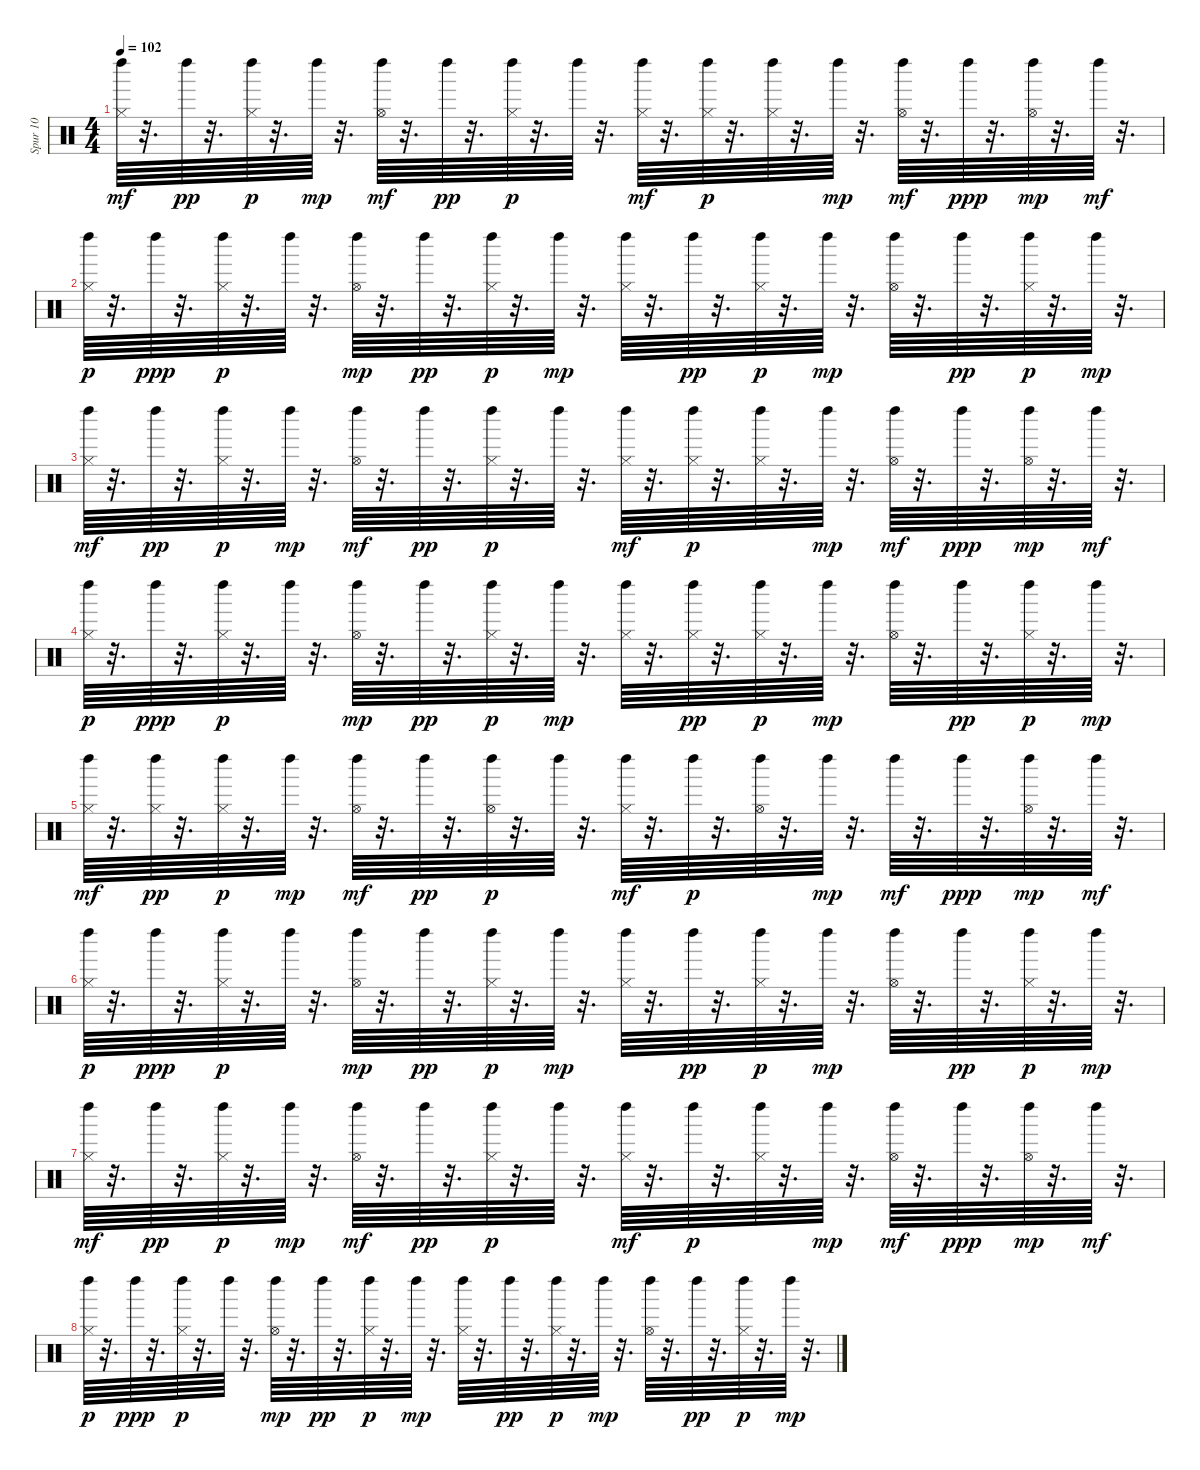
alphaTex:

\track ("Spur 10" "Spur 10") {instrument percussion}
\staff {score}
\articulation defaults
\ts (4 4)
\tempo 102
\clef neutral
\ks c
("Hi-Hat (closed)" "Left Maraca (hit)").64{dy mf} r.32{d} "Left Maraca (hit)".64{dy pp} r.32{d} ("Hi-Hat (closed)" "Left Maraca (hit)").64{dy p} r.32{d} "Left Maraca (hit)".64{dy mp} r.32{d} ("Hi-Hat (open)" "Left Maraca (hit)").64{dy mf} r.32{d} "Left Maraca (hit)".64{dy pp} r.32{d} ("Hi-Hat (closed)" "Left Maraca (hit)").64{dy p} r.32{d} "Left Maraca (hit)".64 r.32{d} ("Hi-Hat (closed)" "Left Maraca (hit)").64{dy mf} r.32{d} ("Hi-Hat (closed)" "Left Maraca (hit)").64{dy p} r.32{d} ("Hi-Hat (closed)" "Left Maraca (hit)").64 r.32{d} "Left Maraca (hit)".64{dy mp} r.32{d} ("Hi-Hat (open)" "Left Maraca (hit)").64{dy mf} r.32{d} "Left Maraca (hit)".64{dy ppp} r.32{d} ("Hi-Hat (open)" "Left Maraca (hit)").64{dy mp} r.32{d} "Left Maraca (hit)".64{dy mf} r.32{d} |
("Hi-Hat (closed)" "Left Maraca (hit)").64{dy p} r.32{d} "Left Maraca (hit)".64{dy ppp} r.32{d} ("Hi-Hat (closed)" "Left Maraca (hit)").64{dy p} r.32{d} "Left Maraca (hit)".64 r.32{d} ("Hi-Hat (open)" "Left Maraca (hit)").64{dy mp} r.32{d} "Left Maraca (hit)".64{dy pp} r.32{d} ("Hi-Hat (closed)" "Left Maraca (hit)").64{dy p} r.32{d} "Left Maraca (hit)".64{dy mp} r.32{d} ("Hi-Hat (closed)" "Left Maraca (hit)").64 r.32{d} "Left Maraca (hit)".64{dy pp} r.32{d} ("Hi-Hat (closed)" "Left Maraca (hit)").64{dy p} r.32{d} "Left Maraca (hit)".64{dy mp} r.32{d} ("Hi-Hat (open)" "Left Maraca (hit)").64 r.32{d} "Left Maraca (hit)".64{dy pp} r.32{d} ("Hi-Hat (closed)" "Left Maraca (hit)").64{dy p} r.32{d} "Left Maraca (hit)".64{dy mp} r.32{d} |
("Hi-Hat (closed)" "Left Maraca (hit)").64{dy mf} r.32{d} "Left Maraca (hit)".64{dy pp} r.32{d} ("Hi-Hat (closed)" "Left Maraca (hit)").64{dy p} r.32{d} "Left Maraca (hit)".64{dy mp} r.32{d} ("Hi-Hat (open)" "Left Maraca (hit)").64{dy mf} r.32{d} "Left Maraca (hit)".64{dy pp} r.32{d} ("Hi-Hat (closed)" "Left Maraca (hit)").64{dy p} r.32{d} "Left Maraca (hit)".64 r.32{d} ("Hi-Hat (closed)" "Left Maraca (hit)").64{dy mf} r.32{d} ("Hi-Hat (closed)" "Left Maraca (hit)").64{dy p} r.32{d} ("Hi-Hat (closed)" "Left Maraca (hit)").64 r.32{d} "Left Maraca (hit)".64{dy mp} r.32{d} ("Hi-Hat (open)" "Left Maraca (hit)").64{dy mf} r.32{d} "Left Maraca (hit)".64{dy ppp} r.32{d} ("Hi-Hat (open)" "Left Maraca (hit)").64{dy mp} r.32{d} "Left Maraca (hit)".64{dy mf} r.32{d} |
("Hi-Hat (closed)" "Left Maraca (hit)").64{dy p} r.32{d} "Left Maraca (hit)".64{dy ppp} r.32{d} ("Hi-Hat (closed)" "Left Maraca (hit)").64{dy p} r.32{d} "Left Maraca (hit)".64 r.32{d} ("Hi-Hat (open)" "Left Maraca (hit)").64{dy mp} r.32{d} "Left Maraca (hit)".64{dy pp} r.32{d} ("Hi-Hat (closed)" "Left Maraca (hit)").64{dy p} r.32{d} "Left Maraca (hit)".64{dy mp} r.32{d} ("Hi-Hat (closed)" "Left Maraca (hit)").64 r.32{d} ("Hi-Hat (closed)" "Left Maraca (hit)").64{dy pp} r.32{d} ("Hi-Hat (closed)" "Left Maraca (hit)").64{dy p} r.32{d} "Left Maraca (hit)".64{dy mp} r.32{d} ("Hi-Hat (open)" "Left Maraca (hit)").64 r.32{d} "Left Maraca (hit)".64{dy pp} r.32{d} ("Hi-Hat (closed)" "Left Maraca (hit)").64{dy p} r.32{d} "Left Maraca (hit)".64{dy mp} r.32{d} |
("Hi-Hat (closed)" "Left Maraca (hit)").64{dy mf} r.32{d} ("Hi-Hat (closed)" "Left Maraca (hit)").64{dy pp} r.32{d} ("Hi-Hat (closed)" "Left Maraca (hit)").64{dy p} r.32{d} "Left Maraca (hit)".64{dy mp} r.32{d} ("Hi-Hat (open)" "Left Maraca (hit)").64{dy mf} r.32{d} "Left Maraca (hit)".64{dy pp} r.32{d} ("Hi-Hat (open)" "Left Maraca (hit)").64{dy p} r.32{d} "Left Maraca (hit)".64 r.32{d} ("Hi-Hat (closed)" "Left Maraca (hit)").64{dy mf} r.32{d} "Left Maraca (hit)".64{dy p} r.32{d} ("Hi-Hat (open)" "Left Maraca (hit)").64 r.32{d} "Left Maraca (hit)".64{dy mp} r.32{d} "Left Maraca (hit)".64{dy mf} r.32{d} "Left Maraca (hit)".64{dy ppp} r.32{d} ("Hi-Hat (open)" "Left Maraca (hit)").64{dy mp} r.32{d} "Left Maraca (hit)".64{dy mf} r.32{d} |
("Hi-Hat (closed)" "Left Maraca (hit)").64{dy p} r.32{d} "Left Maraca (hit)".64{dy ppp} r.32{d} ("Hi-Hat (closed)" "Left Maraca (hit)").64{dy p} r.32{d} "Left Maraca (hit)".64 r.32{d} ("Hi-Hat (open)" "Left Maraca (hit)").64{dy mp} r.32{d} "Left Maraca (hit)".64{dy pp} r.32{d} ("Hi-Hat (closed)" "Left Maraca (hit)").64{dy p} r.32{d} "Left Maraca (hit)".64{dy mp} r.32{d} ("Hi-Hat (closed)" "Left Maraca (hit)").64 r.32{d} "Left Maraca (hit)".64{dy pp} r.32{d} ("Hi-Hat (closed)" "Left Maraca (hit)").64{dy p} r.32{d} "Left Maraca (hit)".64{dy mp} r.32{d} ("Hi-Hat (open)" "Left Maraca (hit)").64 r.32{d} "Left Maraca (hit)".64{dy pp} r.32{d} ("Hi-Hat (closed)" "Left Maraca (hit)").64{dy p} r.32{d} "Left Maraca (hit)".64{dy mp} r.32{d} |
("Hi-Hat (closed)" "Left Maraca (hit)").64{dy mf} r.32{d} "Left Maraca (hit)".64{dy pp} r.32{d} ("Hi-Hat (closed)" "Left Maraca (hit)").64{dy p} r.32{d} "Left Maraca (hit)".64{dy mp} r.32{d} ("Hi-Hat (open)" "Left Maraca (hit)").64{dy mf} r.32{d} "Left Maraca (hit)".64{dy pp} r.32{d} ("Hi-Hat (closed)" "Left Maraca (hit)").64{dy p} r.32{d} "Left Maraca (hit)".64 r.32{d} ("Hi-Hat (closed)" "Left Maraca (hit)").64{dy mf} r.32{d} "Left Maraca (hit)".64{dy p} r.32{d} ("Hi-Hat (closed)" "Left Maraca (hit)").64 r.32{d} "Left Maraca (hit)".64{dy mp} r.32{d} ("Hi-Hat (open)" "Left Maraca (hit)").64{dy mf} r.32{d} "Left Maraca (hit)".64{dy ppp} r.32{d} ("Hi-Hat (open)" "Left Maraca (hit)").64{dy mp} r.32{d} "Left Maraca (hit)".64{dy mf} r.32{d} |
("Hi-Hat (closed)" "Left Maraca (hit)").64{dy p} r.32{d} "Left Maraca (hit)".64{dy ppp} r.32{d} ("Hi-Hat (closed)" "Left Maraca (hit)").64{dy p} r.32{d} "Left Maraca (hit)".64 r.32{d} ("Hi-Hat (open)" "Left Maraca (hit)").64{dy mp} r.32{d} "Left Maraca (hit)".64{dy pp} r.32{d} ("Hi-Hat (closed)" "Left Maraca (hit)").64{dy p} r.32{d} "Left Maraca (hit)".64{dy mp} r.32{d} ("Hi-Hat (closed)" "Left Maraca (hit)").64 r.32{d} "Left Maraca (hit)".64{dy pp} r.32{d} ("Hi-Hat (closed)" "Left Maraca (hit)").64{dy p} r.32{d} "Left Maraca (hit)".64{dy mp} r.32{d} ("Hi-Hat (open)" "Left Maraca (hit)").64 r.32{d} "Left Maraca (hit)".64{dy pp} r.32{d} ("Hi-Hat (closed)" "Left Maraca (hit)").64{dy p} r.32{d} "Left Maraca (hit)".64{dy mp} r.32{d}
